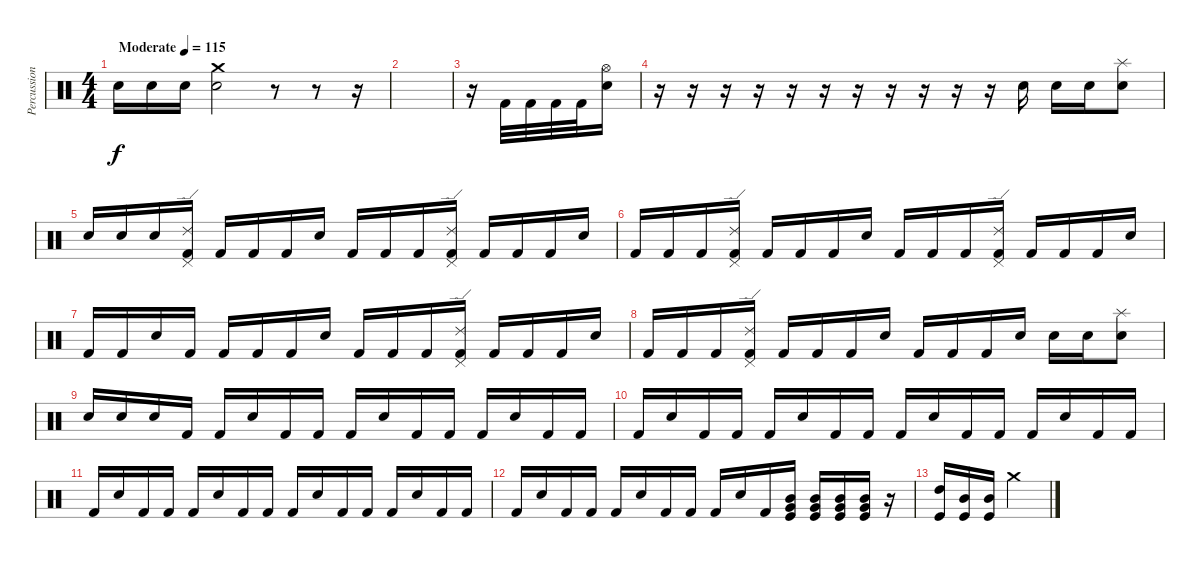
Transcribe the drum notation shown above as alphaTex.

\track ("Percussion" "Percussion") {instrument percussion}
\staff {score}
\articulation defaults
\ts (4 4)
\tempo (115 "Moderate")
\clef neutral
\ks c "Electric Snare (hit)".16{dy f} "Electric Snare (hit)".16 "Electric Snare (hit)".16
("Crash medium (hit)" "Electric Snare (hit)").2 r.8 r.8 r.16 |
|
r.16 "Kick (hit) 2".32 "Kick (hit) 2".32 "Kick (hit) 2".32 "Kick (hit) 2".32 ("Hi-Hat (open)" "Snare (hit) 2").16 |
r.16 r.16 r.16 r.16 r.16 r.16 r.16 r.16 r.16 r.16 r.16 "Electric Snare (hit)".16 "Electric Snare (hit)".16 "Electric Snare (hit)".16 ("Electric Snare (hit)" "Splash (hit)").8 |
"Electric Snare (hit)".16 "Electric Snare (hit)".16 "Electric Snare (hit)".16 ("Pedal Hi-Hat (hit)" "Ride (edge) 2" "Kick (hit) 2").16 "Kick (hit) 2".16 "Kick (hit) 2".16 "Kick (hit) 2".16 "Electric Snare (hit)".16 "Kick (hit) 2".16 "Kick (hit) 2".16 "Kick (hit) 2".16 ("Pedal Hi-Hat (hit)" "Ride (edge) 2" "Kick (hit) 2").16 "Kick (hit) 2".16 "Kick (hit) 2".16 "Kick (hit) 2".16 "Electric Snare (hit)".16 |
"Kick (hit) 2".16 "Kick (hit) 2".16 "Kick (hit) 2".16 ("Pedal Hi-Hat (hit)" "Ride (edge) 2" "Kick (hit) 2").16 "Kick (hit) 2".16 "Kick (hit) 2".16 "Kick (hit) 2".16 "Electric Snare (hit)".16 "Kick (hit) 2".16 "Kick (hit) 2".16 "Kick (hit) 2".16 ("Pedal Hi-Hat (hit)" "Ride (edge) 2" "Kick (hit) 2").16 "Kick (hit) 2".16 "Kick (hit) 2".16 "Kick (hit) 2".16 "Electric Snare (hit)".16 |
"Kick (hit) 2".16 "Kick (hit) 2".16 "Electric Snare (hit)".16 "Kick (hit) 2".16 "Kick (hit) 2".16 "Kick (hit) 2".16 "Kick (hit) 2".16 "Electric Snare (hit)".16 "Kick (hit) 2".16 "Kick (hit) 2".16 "Kick (hit) 2".16 ("Pedal Hi-Hat (hit)" "Ride (edge) 2" "Kick (hit) 2").16 "Kick (hit) 2".16 "Kick (hit) 2".16 "Kick (hit) 2".16 "Electric Snare (hit)".16 |
"Kick (hit) 2".16 "Kick (hit) 2".16 "Kick (hit) 2".16 ("Pedal Hi-Hat (hit)" "Ride (edge) 2" "Kick (hit) 2").16 "Kick (hit) 2".16 "Kick (hit) 2".16 "Kick (hit) 2".16 "Electric Snare (hit)".16 "Kick (hit) 2".16 "Kick (hit) 2".16 "Kick (hit) 2".16 "Electric Snare (hit)".16 "Electric Snare (hit)".16 "Electric Snare (hit)".16 ("Splash (hit)" "Electric Snare (hit)").8 |
"Electric Snare (hit)".16 "Electric Snare (hit)".16 "Electric Snare (hit)".16 "Kick (hit) 2".16 "Kick (hit) 2".16 "Electric Snare (hit)".16 "Kick (hit) 2".16 "Kick (hit) 2".16 "Kick (hit) 2".16 "Electric Snare (hit)".16 "Kick (hit) 2".16 "Kick (hit) 2".16 "Kick (hit) 2".16 "Electric Snare (hit)".16 "Kick (hit) 2".16 "Kick (hit) 2".16 |
"Kick (hit) 2".16 "Electric Snare (hit)".16 "Kick (hit) 2".16 "Kick (hit) 2".16 "Kick (hit) 2".16 "Electric Snare (hit)".16 "Kick (hit) 2".16 "Kick (hit) 2".16 "Kick (hit) 2".16 "Electric Snare (hit)".16 "Kick (hit) 2".16 "Kick (hit) 2".16 "Kick (hit) 2".16 "Electric Snare (hit)".16 "Kick (hit) 2".16 "Kick (hit) 2".16 |
"Kick (hit) 2".16 "Electric Snare (hit)".16 "Kick (hit) 2".16 "Kick (hit) 2".16 "Kick (hit) 2".16 "Electric Snare (hit)".16 "Kick (hit) 2".16 "Kick (hit) 2".16 "Kick (hit) 2".16 "Electric Snare (hit)".16 "Kick (hit) 2".16 "Kick (hit) 2".16 "Kick (hit) 2".16 "Electric Snare (hit)".16 "Kick (hit) 2".16 "Kick (hit) 2".16 |
"Kick (hit) 2".16 "Electric Snare (hit)".16 "Kick (hit) 2".16 "Kick (hit) 2".16 "Kick (hit) 2".16 "Electric Snare (hit)".16 "Kick (hit) 2".16 "Kick (hit) 2".16 "Kick (hit) 2".16 "Electric Snare (hit)".16 "Kick (hit) 2".16 ("Mid Tom (hit)" "Very Low Tom (hit)" "Kick (hit)").16 ("Mid Tom (hit)" "Very Low Tom (hit)" "Kick (hit)").16 ("Mid Tom (hit)" "Very Low Tom (hit)" "Kick (hit)").16 ("Mid Tom (hit)" "Very Low Tom (hit)" "Kick (hit)").16 r.16 |
("High Tom (hit)" "Kick (hit)").16 ("Mid Tom (hit)" "Kick (hit)").16 ("Mid Tom (hit)" "Kick (hit)").16 "Crash medium (hit)".4
